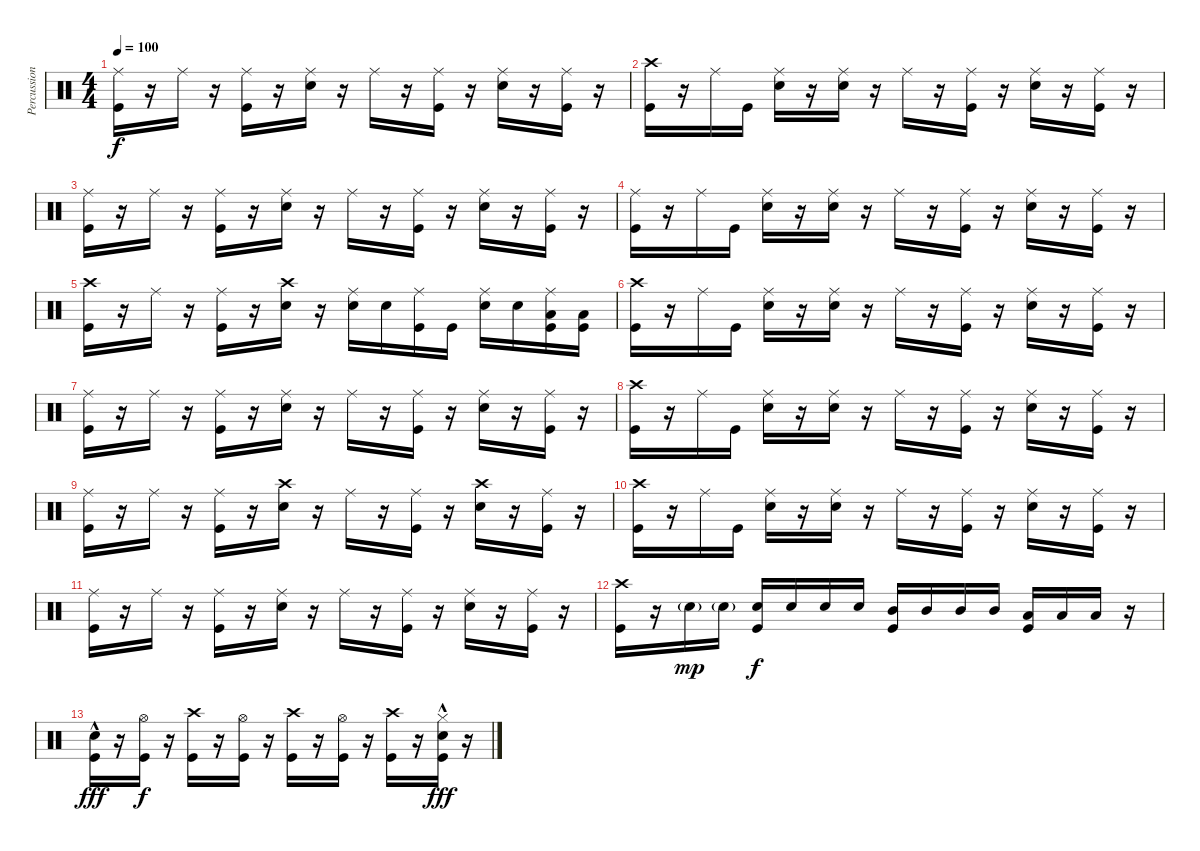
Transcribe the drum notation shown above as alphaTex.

\track ("Percussion" "Percussion") {instrument percussion}
\staff {score}
\articulation defaults
\ts (4 4)
\tempo 100
\clef neutral
\ks c
("Ride (middle)" "Kick (hit)").16{dy f} r.16 "Ride (middle)".16 r.16 ("Ride (middle)" "Kick (hit)").16 r.16 ("Ride (middle)" "Snare (hit) 2").16 r.16 "Ride (middle)".16 r.16 ("Ride (middle)" "Kick (hit)").16 r.16 ("Ride (middle)" "Snare (hit) 2").16 r.16 ("Ride (middle)" "Kick (hit)").16 r.16 |
("Crash high (hit)" "Kick (hit)").16 r.16 "Ride (middle)".16 "Kick (hit)".16 ("Ride (middle)" "Snare (hit) 2").16 r.16 ("Ride (middle)" "Snare (hit) 2").16 r.16 "Ride (middle)".16 r.16 ("Ride (middle)" "Kick (hit)").16 r.16 ("Ride (middle)" "Snare (hit) 2").16 r.16 ("Ride (middle)" "Kick (hit)").16 r.16 |
("Ride (middle)" "Kick (hit)").16 r.16 "Ride (middle)".16 r.16 ("Ride (middle)" "Kick (hit)").16 r.16 ("Ride (middle)" "Snare (hit) 2").16 r.16 "Ride (middle)".16 r.16 ("Ride (middle)" "Kick (hit)").16 r.16 ("Ride (middle)" "Snare (hit) 2").16 r.16 ("Ride (middle)" "Kick (hit)").16 r.16 |
("Ride (middle)" "Kick (hit)").16 r.16 "Ride (middle)".16 "Kick (hit)".16 ("Ride (middle)" "Snare (hit) 2").16 r.16 ("Ride (middle)" "Snare (hit) 2").16 r.16 "Ride (middle)".16 r.16 ("Ride (middle)" "Kick (hit)").16 r.16 ("Ride (middle)" "Snare (hit) 2").16 r.16 ("Ride (middle)" "Kick (hit)").16 r.16 |
("Crash high (hit)" "Kick (hit)").16 r.16 "Ride (middle)".16 r.16 ("Ride (middle)" "Kick (hit)").16 r.16 ("Crash high (hit)" "Snare (hit) 2").16 r.16 ("Ride (middle)" "Snare (hit) 2").16 "Snare (hit) 2".16 ("Ride (middle)" "Kick (hit)").16 "Kick (hit)".16 ("Ride (middle)" "Snare (hit) 2").16 "Snare (hit) 2".16 ("Ride (middle)" "Low Tom (hit)" "Kick (hit)").16 ("Low Tom (hit)" "Kick (hit)").16 |
("Crash high (hit)" "Kick (hit)").16 r.16 "Ride (middle)".16 "Kick (hit)".16 ("Ride (middle)" "Snare (hit) 2").16 r.16 ("Ride (middle)" "Snare (hit) 2").16 r.16 "Ride (middle)".16 r.16 ("Ride (middle)" "Kick (hit)").16 r.16 ("Ride (middle)" "Snare (hit) 2").16 r.16 ("Ride (middle)" "Kick (hit)").16 r.16 |
("Ride (middle)" "Kick (hit)").16 r.16 "Ride (middle)".16 r.16 ("Ride (middle)" "Kick (hit)").16 r.16 ("Ride (middle)" "Snare (hit) 2").16 r.16 "Ride (middle)".16 r.16 ("Ride (middle)" "Kick (hit)").16 r.16 ("Ride (middle)" "Snare (hit) 2").16 r.16 ("Ride (middle)" "Kick (hit)").16 r.16 |
("Crash high (hit)" "Kick (hit)").16 r.16 "Ride (middle)".16 "Kick (hit)".16 ("Ride (middle)" "Snare (hit) 2").16 r.16 ("Ride (middle)" "Snare (hit) 2").16 r.16 "Ride (middle)".16 r.16 ("Ride (middle)" "Kick (hit)").16 r.16 ("Ride (middle)" "Snare (hit) 2").16 r.16 ("Ride (middle)" "Kick (hit)").16 r.16 |
("Ride (middle)" "Kick (hit)").16 r.16 "Ride (middle)".16 r.16 ("Ride (middle)" "Kick (hit)").16 r.16 ("Crash high (hit)" "Snare (hit) 2").16 r.16 "Ride (middle)".16 r.16 ("Ride (middle)" "Kick (hit)").16 r.16 ("Crash high (hit)" "Snare (hit) 2").16 r.16 ("Ride (middle)" "Kick (hit)").16 r.16 |
("Crash high (hit)" "Kick (hit)").16 r.16 "Ride (middle)".16 "Kick (hit)".16 ("Ride (middle)" "Snare (hit) 2").16 r.16 ("Ride (middle)" "Snare (hit) 2").16 r.16 "Ride (middle)".16 r.16 ("Ride (middle)" "Kick (hit)").16 r.16 ("Ride (middle)" "Snare (hit) 2").16 r.16 ("Ride (middle)" "Kick (hit)").16 r.16 |
("Ride (middle)" "Kick (hit)").16 r.16 "Ride (middle)".16 r.16 ("Ride (middle)" "Kick (hit)").16 r.16 ("Ride (middle)" "Snare (hit) 2").16 r.16 "Ride (middle)".16 r.16 ("Ride (middle)" "Kick (hit)").16 r.16 ("Ride (middle)" "Snare (hit) 2").16 r.16 ("Ride (middle)" "Kick (hit)").16 r.16 |
("Crash high (hit)" "Kick (hit)").16 r.16 "Snare (hit) 2"{g}.16{dy mp} "Snare (hit) 2"{g}.16 ("Snare (hit) 2" "Kick (hit)").16{dy f} "Snare (hit) 2".16 "Snare (hit) 2".16 "Snare (hit) 2".16 ("Mid Tom (hit)" "Kick (hit)").16 "Mid Tom (hit)".16 "Mid Tom (hit)".16 "Mid Tom (hit)".16 ("Low Tom (hit)" "Kick (hit)").16 "Low Tom (hit)".16 "Low Tom (hit)".16 r.16 |
("Snare (hit) 2"{hac} "Kick (hit)").16{dy fff} r.16 ("Hi-Hat (open)" "Kick (hit)").16{dy f} r.16 ("Crash high (hit)" "Kick (hit)").16 r.16 ("Hi-Hat (open)" "Kick (hit)").16 r.16 ("Crash high (hit)" "Kick (hit)").16 r.16 ("Hi-Hat (open)" "Kick (hit)").16 r.16 ("Crash high (hit)" "Kick (hit)").16 r.16 ("Hi-Hat (closed)" "Snare (hit) 2"{hac} "Kick (hit)").16{dy fff} r.16
